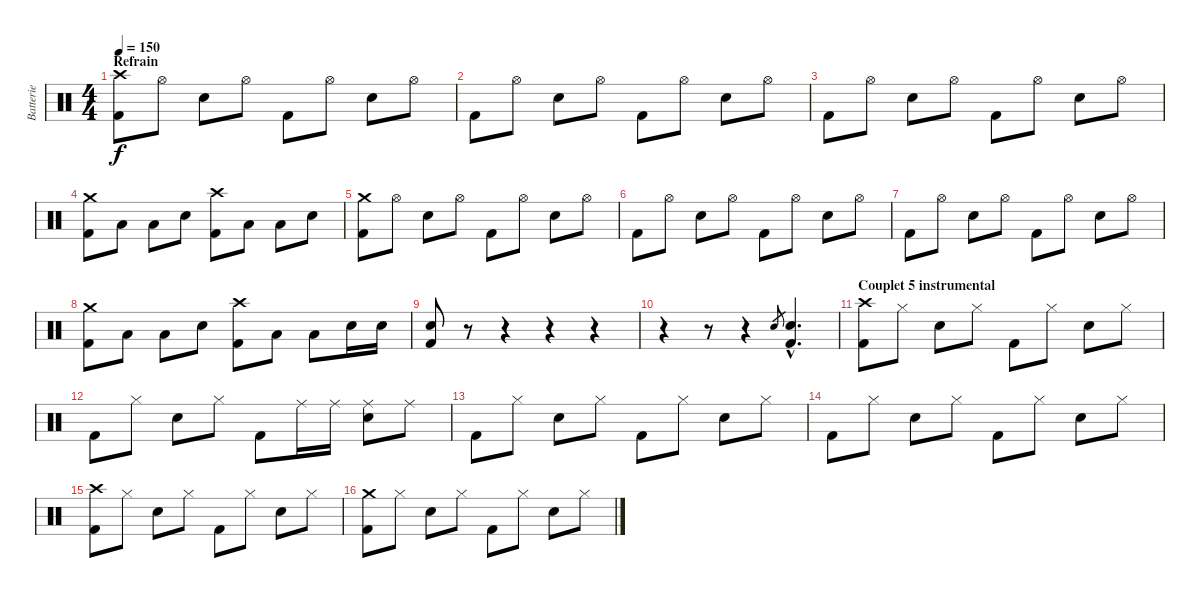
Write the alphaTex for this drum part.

\track ("Batterie" "Batterie") {instrument percussion}
\staff {score}
\articulation defaults
\ts (4 4)
\section ("" "Refrain")
\tempo 150
\clef neutral
\ks c
("Crash high (hit)" "Kick (hit) 2").8{dy f} "Hi-Hat (open)".8 "Electric Snare (hit)".8 "Hi-Hat (open)".8 "Kick (hit) 2".8 "Hi-Hat (open)".8 "Electric Snare (hit)".8 "Hi-Hat (open)".8 |
"Kick (hit) 2".8 "Hi-Hat (open)".8 "Electric Snare (hit)".8 "Hi-Hat (open)".8 "Kick (hit) 2".8 "Hi-Hat (open)".8 "Electric Snare (hit)".8 "Hi-Hat (open)".8 |
"Kick (hit) 2".8 "Hi-Hat (open)".8 "Electric Snare (hit)".8 "Hi-Hat (open)".8 "Kick (hit) 2".8 "Hi-Hat (open)".8 "Electric Snare (hit)".8 "Hi-Hat (open)".8 |
("Crash medium (hit)" "Kick (hit) 2").8 "Low Floor Tom (hit)".8 "Low Tom (hit)".8 "Electric Snare (hit)".8 ("Crash high (hit)" "Kick (hit) 2").8 "Low Floor Tom (hit)".8 "Low Tom (hit)".8 "Electric Snare (hit)".8 |
("Crash medium (hit)" "Kick (hit) 2").8 "Hi-Hat (open)".8 "Electric Snare (hit)".8 "Hi-Hat (open)".8 "Kick (hit) 2".8 "Hi-Hat (open)".8 "Electric Snare (hit)".8 "Hi-Hat (open)".8 |
"Kick (hit) 2".8 "Hi-Hat (open)".8 "Electric Snare (hit)".8 "Hi-Hat (open)".8 "Kick (hit) 2".8 "Hi-Hat (open)".8 "Electric Snare (hit)".8 "Hi-Hat (open)".8 |
"Kick (hit) 2".8 "Hi-Hat (open)".8 "Electric Snare (hit)".8 "Hi-Hat (open)".8 "Kick (hit) 2".8 "Hi-Hat (open)".8 "Electric Snare (hit)".8 "Hi-Hat (open)".8 |
("Crash medium (hit)" "Kick (hit) 2").8 "Low Floor Tom (hit)".8 "Low Tom (hit)".8 "Electric Snare (hit)".8 ("Crash high (hit)" "Kick (hit) 2").8 "Low Floor Tom (hit)".8 "Low Tom (hit)".8 "Electric Snare (hit)".16 "Electric Snare (hit)".16 |
("Electric Snare (hit)" "Kick (hit) 2").8 r.8 r.4 r.4 r.4 |
r.4 r.8 r.4 "Electric Snare (hit)".8{gr} ("Electric Snare (hit)"{hac} "Kick (hit) 2"{hac}).4{d} |
\section ("" "Couplet 5 instrumental")
("Crash high (hit)" "Kick (hit) 2").8 "Hi-Hat (closed)".8 "Electric Snare (hit)".8 "Hi-Hat (closed)".8 "Kick (hit) 2".8 "Hi-Hat (closed)".8 "Electric Snare (hit)".8 "Hi-Hat (closed)".8 |
"Kick (hit) 2".8 "Hi-Hat (closed)".8 "Electric Snare (hit)".8 "Hi-Hat (closed)".8 "Kick (hit) 2".8 "Ride (middle)".16 "Ride (middle)".16 ("Ride (middle)" "Electric Snare (hit)").8 "Ride (middle)".8 |
"Kick (hit) 2".8 "Hi-Hat (closed)".8 "Electric Snare (hit)".8 "Hi-Hat (closed)".8 "Kick (hit) 2".8 "Hi-Hat (closed)".8 "Electric Snare (hit)".8 "Hi-Hat (closed)".8 |
"Kick (hit) 2".8 "Hi-Hat (closed)".8 "Electric Snare (hit)".8 "Hi-Hat (closed)".8 "Kick (hit) 2".8 "Hi-Hat (closed)".8 "Electric Snare (hit)".8 "Hi-Hat (closed)".8 |
("Crash high (hit)" "Kick (hit) 2").8 "Hi-Hat (closed)".8 "Electric Snare (hit)".8 "Hi-Hat (closed)".8 "Kick (hit) 2".8 "Hi-Hat (closed)".8 "Electric Snare (hit)".8 "Hi-Hat (closed)".8 |
("Crash medium (hit)" "Kick (hit) 2").8 "Hi-Hat (closed)".8 "Electric Snare (hit)".8 "Hi-Hat (closed)".8 "Kick (hit) 2".8 "Hi-Hat (closed)".8 "Electric Snare (hit)".8 "Hi-Hat (closed)".8
